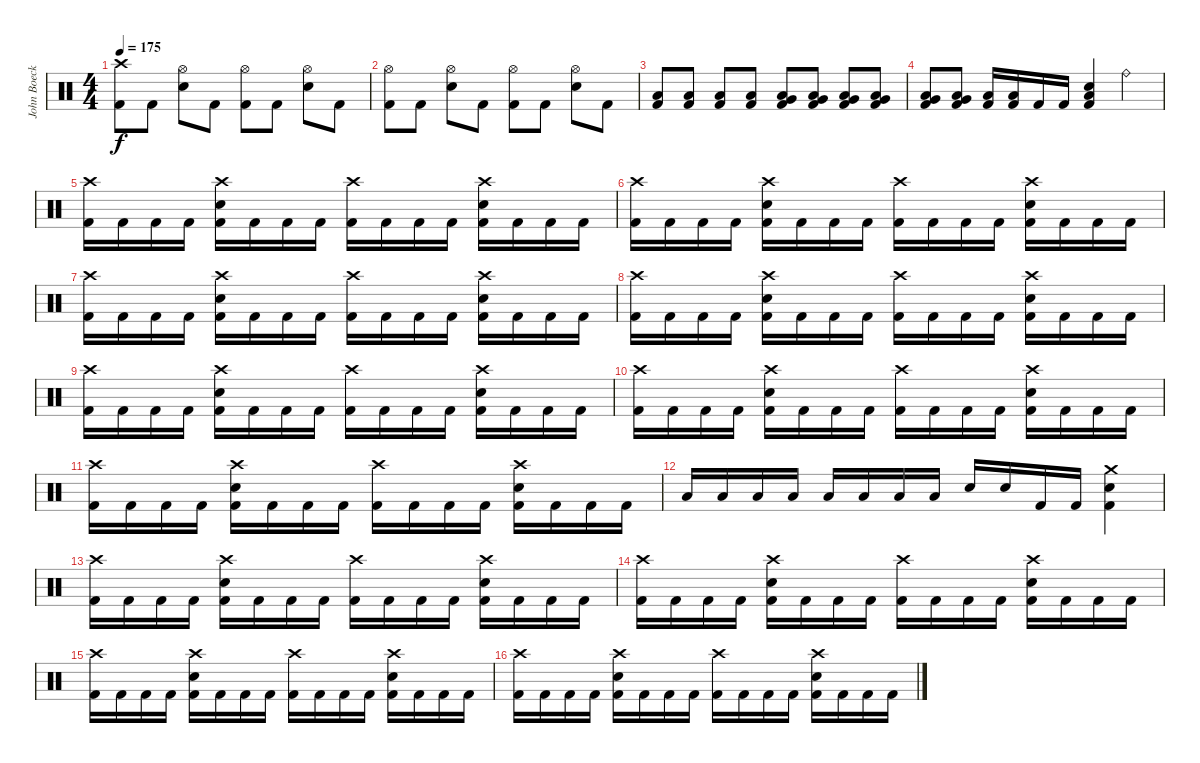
\track ("John Boecklin (Drums)" "John Boeck") {instrument percussion}
\staff {score}
\articulation defaults
\ts (4 4)
\tempo 175
\clef neutral
\ks c
("Crash high (hit)" "Kick (hit) 2").8{dy f} "Kick (hit) 2".8 ("Hi-Hat (open)" "Snare (hit) 2").8 "Kick (hit) 2".8 ("Hi-Hat (open)" "Kick (hit) 2").8 "Kick (hit) 2".8 ("Hi-Hat (open)" "Snare (hit) 2").8 "Kick (hit) 2".8 |
("Hi-Hat (open)" "Kick (hit) 2").8 "Kick (hit) 2".8 ("Hi-Hat (open)" "Snare (hit) 2").8 "Kick (hit) 2".8 ("Hi-Hat (open)" "Kick (hit) 2").8 "Kick (hit) 2".8 ("Hi-Hat (open)" "Snare (hit) 2").8 "Kick (hit) 2".8 |
("Low Floor Tom (hit)" "Kick (hit) 2").8 ("Low Floor Tom (hit)" "Kick (hit) 2").8 ("Low Floor Tom (hit)" "Kick (hit) 2").8 ("Low Floor Tom (hit)" "Kick (hit) 2").8 ("Very Low Tom (hit)" "Low Floor Tom (hit)" "Kick (hit) 2").8 ("Very Low Tom (hit)" "Low Floor Tom (hit)" "Kick (hit) 2").8 ("Very Low Tom (hit)" "Low Floor Tom (hit)" "Kick (hit) 2").8 ("Very Low Tom (hit)" "Low Floor Tom (hit)" "Kick (hit) 2").8 |
("Very Low Tom (hit)" "Low Floor Tom (hit)" "Kick (hit) 2").8 ("Very Low Tom (hit)" "Low Floor Tom (hit)" "Kick (hit) 2").8 ("Low Tom (hit)" "Kick (hit) 2").16 ("Low Tom (hit)" "Kick (hit) 2").16 "Kick (hit) 2".16 "Kick (hit) 2".16 ("Kick (hit) 2" "Low Floor Tom (hit)" "Snare (hit) 2").4 "Ride (bell)".4 |
("Crash high (hit)" "Kick (hit) 2").16 "Kick (hit) 2".16 "Kick (hit) 2".16 "Kick (hit) 2".16 ("Crash high (hit)" "Snare (hit) 2" "Kick (hit) 2").16 "Kick (hit) 2".16 "Kick (hit) 2".16 "Kick (hit) 2".16 ("Crash high (hit)" "Kick (hit) 2").16 "Kick (hit) 2".16 "Kick (hit) 2".16 "Kick (hit) 2".16 ("Crash high (hit)" "Snare (hit) 2" "Kick (hit) 2").16 "Kick (hit) 2".16 "Kick (hit) 2".16 "Kick (hit) 2".16 |
("Crash high (hit)" "Kick (hit) 2").16 "Kick (hit) 2".16 "Kick (hit) 2".16 "Kick (hit) 2".16 ("Crash high (hit)" "Snare (hit) 2" "Kick (hit) 2").16 "Kick (hit) 2".16 "Kick (hit) 2".16 "Kick (hit) 2".16 ("Crash high (hit)" "Kick (hit) 2").16 "Kick (hit) 2".16 "Kick (hit) 2".16 "Kick (hit) 2".16 ("Crash high (hit)" "Snare (hit) 2" "Kick (hit) 2").16 "Kick (hit) 2".16 "Kick (hit) 2".16 "Kick (hit) 2".16 |
("Crash high (hit)" "Kick (hit) 2").16 "Kick (hit) 2".16 "Kick (hit) 2".16 "Kick (hit) 2".16 ("Crash high (hit)" "Snare (hit) 2" "Kick (hit) 2").16 "Kick (hit) 2".16 "Kick (hit) 2".16 "Kick (hit) 2".16 ("Crash high (hit)" "Kick (hit) 2").16 "Kick (hit) 2".16 "Kick (hit) 2".16 "Kick (hit) 2".16 ("Crash high (hit)" "Snare (hit) 2" "Kick (hit) 2").16 "Kick (hit) 2".16 "Kick (hit) 2".16 "Kick (hit) 2".16 |
("Crash high (hit)" "Kick (hit) 2").16 "Kick (hit) 2".16 "Kick (hit) 2".16 "Kick (hit) 2".16 ("Crash high (hit)" "Snare (hit) 2" "Kick (hit) 2").16 "Kick (hit) 2".16 "Kick (hit) 2".16 "Kick (hit) 2".16 ("Crash high (hit)" "Kick (hit) 2").16 "Kick (hit) 2".16 "Kick (hit) 2".16 "Kick (hit) 2".16 ("Crash high (hit)" "Snare (hit) 2" "Kick (hit) 2").16 "Kick (hit) 2".16 "Kick (hit) 2".16 "Kick (hit) 2".16 |
("Crash high (hit)" "Kick (hit) 2").16 "Kick (hit) 2".16 "Kick (hit) 2".16 "Kick (hit) 2".16 ("Crash high (hit)" "Snare (hit) 2" "Kick (hit) 2").16 "Kick (hit) 2".16 "Kick (hit) 2".16 "Kick (hit) 2".16 ("Crash high (hit)" "Kick (hit) 2").16 "Kick (hit) 2".16 "Kick (hit) 2".16 "Kick (hit) 2".16 ("Crash high (hit)" "Snare (hit) 2" "Kick (hit) 2").16 "Kick (hit) 2".16 "Kick (hit) 2".16 "Kick (hit) 2".16 |
("Crash high (hit)" "Kick (hit) 2").16 "Kick (hit) 2".16 "Kick (hit) 2".16 "Kick (hit) 2".16 ("Crash high (hit)" "Snare (hit) 2" "Kick (hit) 2").16 "Kick (hit) 2".16 "Kick (hit) 2".16 "Kick (hit) 2".16 ("Crash high (hit)" "Kick (hit) 2").16 "Kick (hit) 2".16 "Kick (hit) 2".16 "Kick (hit) 2".16 ("Crash high (hit)" "Snare (hit) 2" "Kick (hit) 2").16 "Kick (hit) 2".16 "Kick (hit) 2".16 "Kick (hit) 2".16 |
("Crash high (hit)" "Kick (hit) 2").16 "Kick (hit) 2".16 "Kick (hit) 2".16 "Kick (hit) 2".16 ("Crash high (hit)" "Snare (hit) 2" "Kick (hit) 2").16 "Kick (hit) 2".16 "Kick (hit) 2".16 "Kick (hit) 2".16 ("Crash high (hit)" "Kick (hit) 2").16 "Kick (hit) 2".16 "Kick (hit) 2".16 "Kick (hit) 2".16 ("Crash high (hit)" "Snare (hit) 2" "Kick (hit) 2").16 "Kick (hit) 2".16 "Kick (hit) 2".16 "Kick (hit) 2".16 |
"Low Tom (hit)".16 "Low Tom (hit)".16 "Low Tom (hit)".16 "Low Tom (hit)".16 "Low Tom (hit)".16 "Low Tom (hit)".16 "Low Tom (hit)".16 "Low Tom (hit)".16 "Snare (hit) 2".16 "Snare (hit) 2".16 "Kick (hit) 2".16 "Kick (hit) 2".16 ("Crash medium (hit)" "Kick (hit) 2" "Snare (hit) 2").4 |
("Crash high (hit)" "Kick (hit) 2").16 "Kick (hit) 2".16 "Kick (hit) 2".16 "Kick (hit) 2".16 ("Crash high (hit)" "Snare (hit) 2" "Kick (hit) 2").16 "Kick (hit) 2".16 "Kick (hit) 2".16 "Kick (hit) 2".16 ("Crash high (hit)" "Kick (hit) 2").16 "Kick (hit) 2".16 "Kick (hit) 2".16 "Kick (hit) 2".16 ("Crash high (hit)" "Snare (hit) 2" "Kick (hit) 2").16 "Kick (hit) 2".16 "Kick (hit) 2".16 "Kick (hit) 2".16 |
("Crash high (hit)" "Kick (hit) 2").16 "Kick (hit) 2".16 "Kick (hit) 2".16 "Kick (hit) 2".16 ("Crash high (hit)" "Snare (hit) 2" "Kick (hit) 2").16 "Kick (hit) 2".16 "Kick (hit) 2".16 "Kick (hit) 2".16 ("Crash high (hit)" "Kick (hit) 2").16 "Kick (hit) 2".16 "Kick (hit) 2".16 "Kick (hit) 2".16 ("Crash high (hit)" "Snare (hit) 2" "Kick (hit) 2").16 "Kick (hit) 2".16 "Kick (hit) 2".16 "Kick (hit) 2".16 |
("Crash high (hit)" "Kick (hit) 2").16 "Kick (hit) 2".16 "Kick (hit) 2".16 "Kick (hit) 2".16 ("Crash high (hit)" "Snare (hit) 2" "Kick (hit) 2").16 "Kick (hit) 2".16 "Kick (hit) 2".16 "Kick (hit) 2".16 ("Crash high (hit)" "Kick (hit) 2").16 "Kick (hit) 2".16 "Kick (hit) 2".16 "Kick (hit) 2".16 ("Crash high (hit)" "Snare (hit) 2" "Kick (hit) 2").16 "Kick (hit) 2".16 "Kick (hit) 2".16 "Kick (hit) 2".16 |
("Crash high (hit)" "Kick (hit) 2").16 "Kick (hit) 2".16 "Kick (hit) 2".16 "Kick (hit) 2".16 ("Crash high (hit)" "Snare (hit) 2" "Kick (hit) 2").16 "Kick (hit) 2".16 "Kick (hit) 2".16 "Kick (hit) 2".16 ("Crash high (hit)" "Kick (hit) 2").16 "Kick (hit) 2".16 "Kick (hit) 2".16 "Kick (hit) 2".16 ("Crash high (hit)" "Snare (hit) 2" "Kick (hit) 2").16 "Kick (hit) 2".16 "Kick (hit) 2".16 "Kick (hit) 2".16
